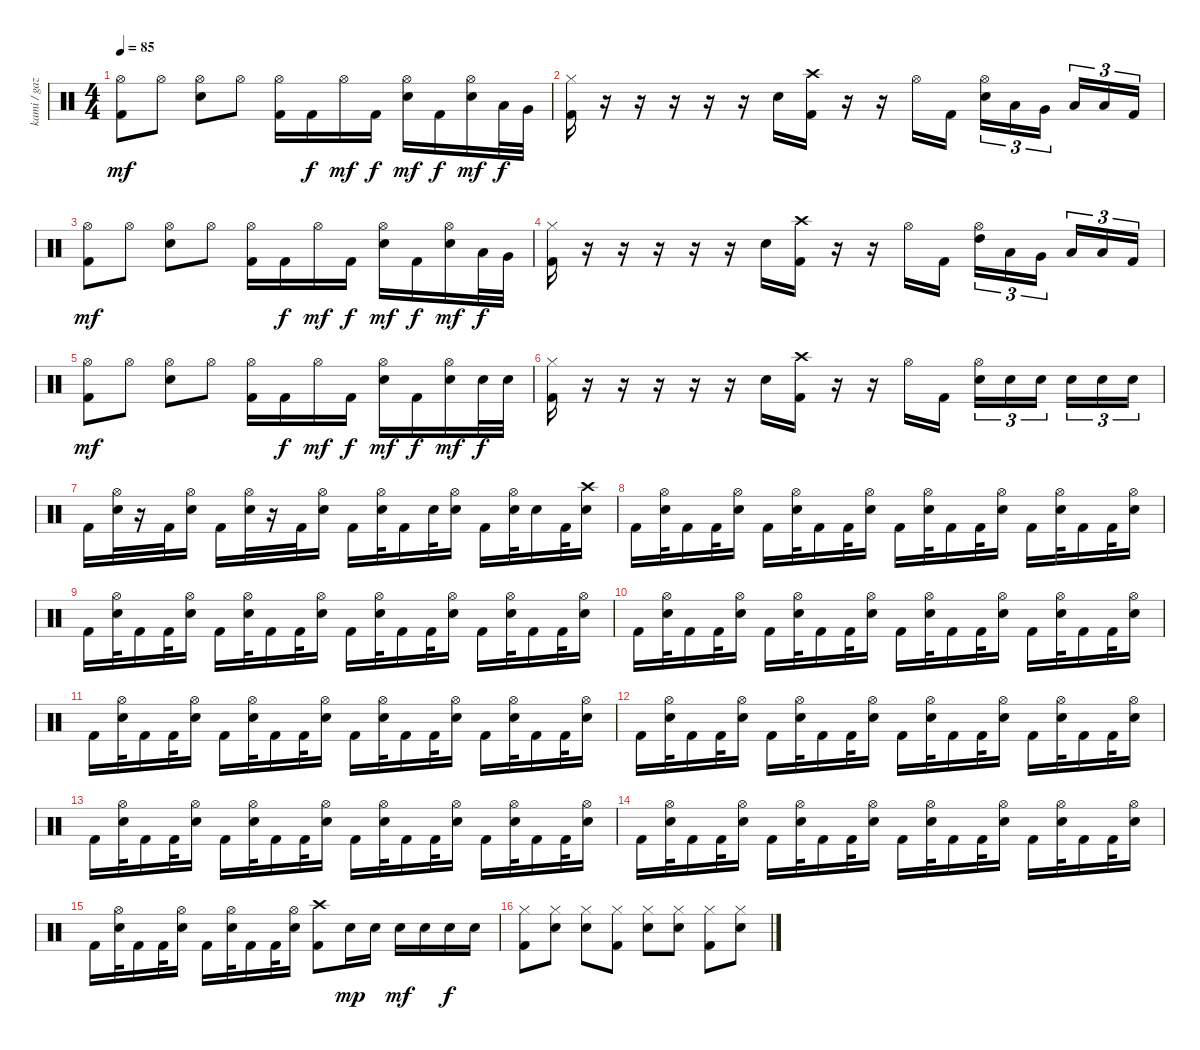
\track ("kami / gaz (?)" "kami / gaz") {instrument percussion}
\staff {score}
\articulation defaults
\ts (4 4)
\tempo 85
\clef neutral
\ks c
("Kick (hit) 2" "Hi-Hat (open)").8{dy mf} "Hi-Hat (open)".8 ("Electric Snare (hit)" "Hi-Hat (open)").8 "Hi-Hat (open)".8 ("Kick (hit) 2" "Hi-Hat (open)").16 "Kick (hit) 2".16{dy f} "Hi-Hat (open)".16{dy mf} "Kick (hit) 2".16{dy f} ("Electric Snare (hit)" "Hi-Hat (open)").16{dy mf} "Kick (hit) 2".16{dy f} ("Electric Snare (hit)" "Hi-Hat (open)").16{dy mf} "Low Tom (hit)".32{dy f} "Very Low Tom (hit)".32 |
("Kick (hit) 2" "Hi-Hat (closed)").16 r.16 r.16 r.16 r.16 r.16 "Electric Snare (hit)".16 ("Kick (hit) 2" "Crash high (hit)").16 r.16 r.16 "Hi-Hat (open)".16 "Kick (hit) 2".16 ("Electric Snare (hit)" "Hi-Hat (open)").16{tu (3 2)} "Low Tom (hit)".16{tu (3 2)} "Very Low Tom (hit)".16{tu (3 2)} "Low Floor Tom (hit)".16{tu (3 2)} "Low Floor Tom (hit)".16{tu (3 2)} "Kick (hit) 2".16{tu (3 2)} |
("Kick (hit) 2" "Hi-Hat (open)").8{dy mf} "Hi-Hat (open)".8 ("Electric Snare (hit)" "Hi-Hat (open)").8 "Hi-Hat (open)".8 ("Kick (hit) 2" "Hi-Hat (open)").16 "Kick (hit) 2".16{dy f} "Hi-Hat (open)".16{dy mf} "Kick (hit) 2".16{dy f} ("Electric Snare (hit)" "Hi-Hat (open)").16{dy mf} "Kick (hit) 2".16{dy f} ("Electric Snare (hit)" "Hi-Hat (open)").16{dy mf} "Low Tom (hit)".32{dy f} "Very Low Tom (hit)".32 |
("Kick (hit) 2" "Hi-Hat (closed)").16 r.16 r.16 r.16 r.16 r.16 "Electric Snare (hit)".16 ("Kick (hit) 2" "Crash high (hit)").16 r.16 r.16 "Hi-Hat (open)".16 "Kick (hit) 2".16 ("High Tom (hit)" "Hi-Hat (open)").16{tu (3 2)} "Low Tom (hit)".16{tu (3 2)} "Very Low Tom (hit)".16{tu (3 2)} "Low Floor Tom (hit)".16{tu (3 2)} "Low Floor Tom (hit)".16{tu (3 2)} "Kick (hit) 2".16{tu (3 2)} |
("Kick (hit) 2" "Hi-Hat (open)").8{dy mf} "Hi-Hat (open)".8 ("Electric Snare (hit)" "Hi-Hat (open)").8 "Hi-Hat (open)".8 ("Kick (hit) 2" "Hi-Hat (open)").16 "Kick (hit) 2".16{dy f} "Hi-Hat (open)".16{dy mf} "Kick (hit) 2".16{dy f} ("Electric Snare (hit)" "Hi-Hat (open)").16{dy mf} "Kick (hit) 2".16{dy f} ("Electric Snare (hit)" "Hi-Hat (open)").16{dy mf} "Electric Snare (hit)".32{dy f} "Electric Snare (hit)".32 |
("Kick (hit) 2" "Hi-Hat (closed)").16 r.16 r.16 r.16 r.16 r.16 "Electric Snare (hit)".16 ("Kick (hit) 2" "Crash high (hit)").16 r.16 r.16 "Hi-Hat (open)".16 "Kick (hit) 2".16 ("Electric Snare (hit)" "Hi-Hat (open)").16{tu (3 2)} "Electric Snare (hit)".16{tu (3 2)} "Electric Snare (hit)".16{tu (3 2)} "Electric Snare (hit)".16{tu (3 2)} "Electric Snare (hit)".16{tu (3 2)} "Electric Snare (hit)".16{tu (3 2)} |
"Kick (hit) 2".16 ("Electric Snare (hit)" "Hi-Hat (open)").32 r.16 "Kick (hit) 2".32 ("Electric Snare (hit)" "Hi-Hat (open)").16 "Kick (hit) 2".16 ("Electric Snare (hit)" "Hi-Hat (open)").32 r.16 "Kick (hit) 2".32 ("Electric Snare (hit)" "Hi-Hat (open)").16 "Kick (hit) 2".16 ("Electric Snare (hit)" "Hi-Hat (open)").32 "Kick (hit) 2".16 "Electric Snare (hit)".32 ("Electric Snare (hit)" "Hi-Hat (open)").16 "Kick (hit) 2".16 ("Electric Snare (hit)" "Hi-Hat (open)").32 "Electric Snare (hit)".16 "Kick (hit) 2".32 ("Electric Snare (hit)" "Crash high (hit)").16 |
"Kick (hit) 2".16 ("Electric Snare (hit)" "Hi-Hat (open)").32 "Kick (hit) 2".16 "Kick (hit) 2".32 ("Electric Snare (hit)" "Hi-Hat (open)").16 "Kick (hit) 2".16 ("Electric Snare (hit)" "Hi-Hat (open)").32 "Kick (hit) 2".16 "Kick (hit) 2".32 ("Electric Snare (hit)" "Hi-Hat (open)").16 "Kick (hit) 2".16 ("Electric Snare (hit)" "Hi-Hat (open)").32 "Kick (hit) 2".16 "Kick (hit) 2".32 ("Electric Snare (hit)" "Hi-Hat (open)").16 "Kick (hit) 2".16 ("Electric Snare (hit)" "Hi-Hat (open)").32 "Kick (hit) 2".16 "Kick (hit) 2".32 ("Electric Snare (hit)" "Hi-Hat (open)").16 |
"Kick (hit) 2".16 ("Electric Snare (hit)" "Hi-Hat (open)").32 "Kick (hit) 2".16 "Kick (hit) 2".32 ("Electric Snare (hit)" "Hi-Hat (open)").16 "Kick (hit) 2".16 ("Electric Snare (hit)" "Hi-Hat (open)").32 "Kick (hit) 2".16 "Kick (hit) 2".32 ("Electric Snare (hit)" "Hi-Hat (open)").16 "Kick (hit) 2".16 ("Electric Snare (hit)" "Hi-Hat (open)").32 "Kick (hit) 2".16 "Kick (hit) 2".32 ("Electric Snare (hit)" "Hi-Hat (open)").16 "Kick (hit) 2".16 ("Electric Snare (hit)" "Hi-Hat (open)").32 "Kick (hit) 2".16 "Kick (hit) 2".32 ("Electric Snare (hit)" "Hi-Hat (open)").16 |
"Kick (hit) 2".16 ("Electric Snare (hit)" "Hi-Hat (open)").32 "Kick (hit) 2".16 "Kick (hit) 2".32 ("Electric Snare (hit)" "Hi-Hat (open)").16 "Kick (hit) 2".16 ("Electric Snare (hit)" "Hi-Hat (open)").32 "Kick (hit) 2".16 "Kick (hit) 2".32 ("Electric Snare (hit)" "Hi-Hat (open)").16 "Kick (hit) 2".16 ("Electric Snare (hit)" "Hi-Hat (open)").32 "Kick (hit) 2".16 "Kick (hit) 2".32 ("Electric Snare (hit)" "Hi-Hat (open)").16 "Kick (hit) 2".16 ("Electric Snare (hit)" "Hi-Hat (open)").32 "Kick (hit) 2".16 "Kick (hit) 2".32 ("Electric Snare (hit)" "Hi-Hat (open)").16 |
"Kick (hit) 2".16 ("Electric Snare (hit)" "Hi-Hat (open)").32 "Kick (hit) 2".16 "Kick (hit) 2".32 ("Electric Snare (hit)" "Hi-Hat (open)").16 "Kick (hit) 2".16 ("Electric Snare (hit)" "Hi-Hat (open)").32 "Kick (hit) 2".16 "Kick (hit) 2".32 ("Electric Snare (hit)" "Hi-Hat (open)").16 "Kick (hit) 2".16 ("Electric Snare (hit)" "Hi-Hat (open)").32 "Kick (hit) 2".16 "Kick (hit) 2".32 ("Electric Snare (hit)" "Hi-Hat (open)").16 "Kick (hit) 2".16 ("Electric Snare (hit)" "Hi-Hat (open)").32 "Kick (hit) 2".16 "Kick (hit) 2".32 ("Electric Snare (hit)" "Hi-Hat (open)").16 |
"Kick (hit) 2".16 ("Electric Snare (hit)" "Hi-Hat (open)").32 "Kick (hit) 2".16 "Kick (hit) 2".32 ("Electric Snare (hit)" "Hi-Hat (open)").16 "Kick (hit) 2".16 ("Electric Snare (hit)" "Hi-Hat (open)").32 "Kick (hit) 2".16 "Kick (hit) 2".32 ("Electric Snare (hit)" "Hi-Hat (open)").16 "Kick (hit) 2".16 ("Electric Snare (hit)" "Hi-Hat (open)").32 "Kick (hit) 2".16 "Kick (hit) 2".32 ("Electric Snare (hit)" "Hi-Hat (open)").16 "Kick (hit) 2".16 ("Electric Snare (hit)" "Hi-Hat (open)").32 "Kick (hit) 2".16 "Kick (hit) 2".32 ("Electric Snare (hit)" "Hi-Hat (open)").16 |
"Kick (hit) 2".16 ("Electric Snare (hit)" "Hi-Hat (open)").32 "Kick (hit) 2".16 "Kick (hit) 2".32 ("Electric Snare (hit)" "Hi-Hat (open)").16 "Kick (hit) 2".16 ("Electric Snare (hit)" "Hi-Hat (open)").32 "Kick (hit) 2".16 "Kick (hit) 2".32 ("Electric Snare (hit)" "Hi-Hat (open)").16 "Kick (hit) 2".16 ("Electric Snare (hit)" "Hi-Hat (open)").32 "Kick (hit) 2".16 "Kick (hit) 2".32 ("Electric Snare (hit)" "Hi-Hat (open)").16 "Kick (hit) 2".16 ("Electric Snare (hit)" "Hi-Hat (open)").32 "Kick (hit) 2".16 "Kick (hit) 2".32 ("Electric Snare (hit)" "Hi-Hat (open)").16 |
"Kick (hit) 2".16 ("Electric Snare (hit)" "Hi-Hat (open)").32 "Kick (hit) 2".16 "Kick (hit) 2".32 ("Electric Snare (hit)" "Hi-Hat (open)").16 "Kick (hit) 2".16 ("Electric Snare (hit)" "Hi-Hat (open)").32 "Kick (hit) 2".16 "Kick (hit) 2".32 ("Electric Snare (hit)" "Hi-Hat (open)").16 "Kick (hit) 2".16 ("Electric Snare (hit)" "Hi-Hat (open)").32 "Kick (hit) 2".16 "Kick (hit) 2".32 ("Electric Snare (hit)" "Hi-Hat (open)").16 "Kick (hit) 2".16 ("Electric Snare (hit)" "Hi-Hat (open)").32 "Kick (hit) 2".16 "Kick (hit) 2".32 ("Electric Snare (hit)" "Hi-Hat (open)").16 |
"Kick (hit) 2".16 ("Electric Snare (hit)" "Hi-Hat (open)").32 "Kick (hit) 2".16 "Kick (hit) 2".32 ("Electric Snare (hit)" "Hi-Hat (open)").16 "Kick (hit) 2".16 ("Electric Snare (hit)" "Hi-Hat (open)").32 "Kick (hit) 2".16 "Kick (hit) 2".32 ("Electric Snare (hit)" "Hi-Hat (open)").16 ("Kick (hit) 2" "Crash high (hit)").8 "Electric Snare (hit)".16{dy mp} "Electric Snare (hit)".16 "Electric Snare (hit)".16{dy mf} "Electric Snare (hit)".16 "Electric Snare (hit)".16{dy f} "Electric Snare (hit)".16 |
("Kick (hit) 2" "Hi-Hat (closed)").8 ("Electric Snare (hit)" "Hi-Hat (closed)").8 ("Electric Snare (hit)" "Hi-Hat (closed)").8 ("Kick (hit) 2" "Hi-Hat (closed)").8 ("Electric Snare (hit)" "Hi-Hat (closed)").8 ("Electric Snare (hit)" "Hi-Hat (closed)").8 ("Kick (hit) 2" "Hi-Hat (closed)").8 ("Electric Snare (hit)" "Hi-Hat (closed)").8
